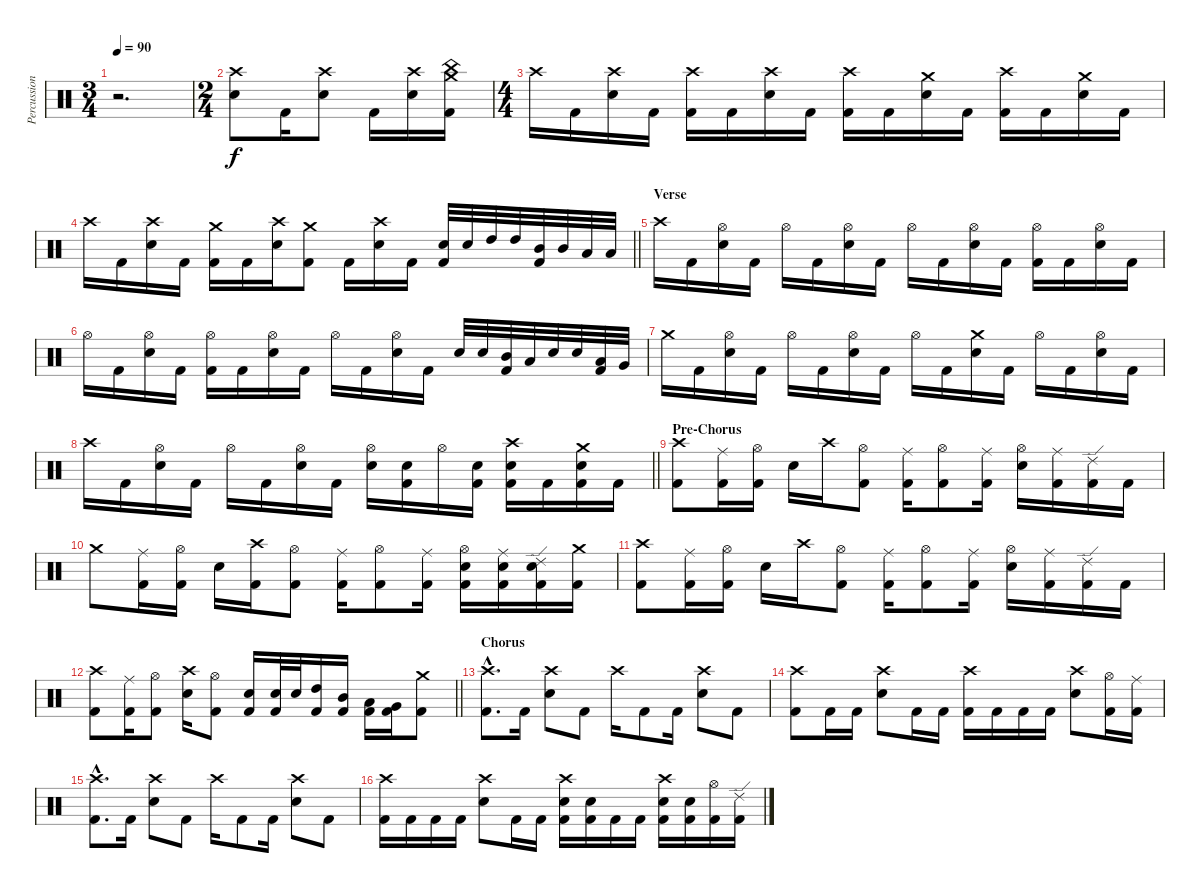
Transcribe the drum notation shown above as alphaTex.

\track ("Percussion" "Percussion") {instrument percussion}
\staff {score}
\articulation defaults
\ts (3 4)
\tempo 90
\clef neutral
\ks c
r.2{d dy f} |
\ts (2 4)
("Crash high (hit)" "Electric Snare (hit)").8 "Kick (hit) 2".16 ("Crash high (hit)" "Electric Snare (hit)").8 "Kick (hit) 2".16 ("Crash high (hit)" "Electric Snare (hit)").16 ("China (hit)" "Crash medium (hit)" "Kick (hit) 2").16 |
\ts (4 4)
"Crash high (hit)".16 "Kick (hit) 2".16 ("Crash high (hit)" "Electric Snare (hit)").16 "Kick (hit) 2".16 ("Crash high (hit)" "Kick (hit) 2").16 "Kick (hit) 2".16 ("Crash high (hit)" "Electric Snare (hit)").16 "Kick (hit) 2".16 ("Crash high (hit)" "Kick (hit) 2").16 "Kick (hit) 2".16 ("Crash medium (hit)" "Electric Snare (hit)").16 "Kick (hit) 2".16 ("Crash high (hit)" "Kick (hit) 2").16 "Kick (hit) 2".16 ("Crash medium (hit)" "Electric Snare (hit)").16 "Kick (hit) 2".16 |
\barLineRight lightlight "Crash high (hit)".16 "Kick (hit) 2".16
("Crash high (hit)" "Electric Snare (hit)").16 "Kick (hit) 2".16 ("Crash medium (hit)" "Kick (hit) 2").16 "Kick (hit) 2".16 ("Crash high (hit)" "Electric Snare (hit)").16 ("Crash medium (hit)" "Kick (hit) 2").8 "Kick (hit) 2".16 ("Crash high (hit)" "Electric Snare (hit)").16 "Kick (hit) 2".16 ("Electric Snare (hit)" "Kick (hit) 2").32 "Electric Snare (hit)".32 "High Tom (hit)".32 "High Tom (hit)".32 ("Mid Tom (hit)" "Kick (hit) 2").32 "Mid Tom (hit)".32 "Low Tom (hit)".32 "Low Tom (hit)".32 |
\section ("" "Verse")
"Crash high (hit)".16 "Kick (hit) 2".16 ("Hi-Hat (open)" "Electric Snare (hit)").16 "Kick (hit) 2".16 "Hi-Hat (open)".16 "Kick (hit) 2".16 ("Hi-Hat (open)" "Electric Snare (hit)").16 "Kick (hit) 2".16 "Hi-Hat (open)".16 "Kick (hit) 2".16 ("Hi-Hat (open)" "Electric Snare (hit)").16 "Kick (hit) 2".16 ("Hi-Hat (open)" "Kick (hit) 2").16 "Kick (hit) 2".16 ("Hi-Hat (open)" "Electric Snare (hit)").16 "Kick (hit) 2".16 |
"Hi-Hat (open)".16 "Kick (hit) 2".16 ("Hi-Hat (open)" "Electric Snare (hit)").16 "Kick (hit) 2".16 ("Hi-Hat (open)" "Kick (hit) 2").16 "Kick (hit) 2".16 ("Hi-Hat (open)" "Electric Snare (hit)").16 "Kick (hit) 2".16 "Hi-Hat (open)".16 "Kick (hit) 2".16 ("Hi-Hat (open)" "Electric Snare (hit)").16 "Kick (hit) 2".16 "Electric Snare (hit)".32 "Electric Snare (hit)".32 ("Mid Tom (hit)" "Kick (hit) 2").32 "Low Tom (hit)".32 "Electric Snare (hit)".32 "Electric Snare (hit)".32 ("Low Tom (hit)" "Kick (hit) 2").32 "Very Low Tom (hit)".32 |
"Crash medium (hit)".16 "Kick (hit) 2".16 ("Hi-Hat (open)" "Electric Snare (hit)").16 "Kick (hit) 2".16 "Hi-Hat (open)".16 "Kick (hit) 2".16 ("Hi-Hat (open)" "Electric Snare (hit)").16 "Kick (hit) 2".16 "Hi-Hat (open)".16 "Kick (hit) 2".16 ("Crash medium (hit)" "Electric Snare (hit)").16 "Kick (hit) 2".16 "Hi-Hat (open)".16 "Kick (hit) 2".16 ("Hi-Hat (open)" "Electric Snare (hit)").16 "Kick (hit) 2".16 |
\barLineRight lightlight "Crash high (hit)".16 "Kick (hit) 2".16
("Hi-Hat (open)" "Electric Snare (hit)").16 "Kick (hit) 2".16 "Hi-Hat (open)".16 "Kick (hit) 2".16 ("Hi-Hat (open)" "Electric Snare (hit)").16 "Kick (hit) 2".16 ("Hi-Hat (open)" "Electric Snare (hit)").16 ("Electric Snare (hit)" "Kick (hit) 2").16 "Hi-Hat (open)".16 ("Electric Snare (hit)" "Kick (hit) 2").16 ("Crash high (hit)" "Electric Snare (hit)" "Kick (hit) 2").16 "Kick (hit) 2".16 ("Crash medium (hit)" "Electric Snare (hit)" "Kick (hit) 2").16 "Kick (hit) 2".16 |
\section ("" "Pre-Chorus")
("Crash high (hit)" "Kick (hit) 2").8 ("Ride (middle)" "Kick (hit) 2").16 ("Hi-Hat (open)" "Kick (hit) 2").16 "Electric Snare (hit)".16 "Crash high (hit)".16 ("Hi-Hat (open)" "Kick (hit) 2").8 ("Ride (middle)" "Kick (hit) 2").16 ("Hi-Hat (open)" "Kick (hit) 2").8 ("Ride (middle)" "Kick (hit) 2").16 ("Hi-Hat (open)" "Electric Snare (hit)").16 ("Ride (middle)" "Kick (hit) 2").16 ("Ride (edge) 2" "Kick (hit) 2").16 "Kick (hit) 2".16 |
"Crash medium (hit)".8 ("Ride (middle)" "Kick (hit) 2").16 ("Hi-Hat (open)" "Kick (hit) 2").16 "Electric Snare (hit)".16 ("Crash high (hit)" "Kick (hit) 2").16 ("Hi-Hat (open)" "Kick (hit) 2").8 ("Ride (middle)" "Kick (hit) 2").16 ("Hi-Hat (open)" "Kick (hit) 2").8 ("Ride (middle)" "Kick (hit) 2").16 ("Hi-Hat (open)" "Electric Snare (hit)" "Kick (hit) 2").16 ("Ride (middle)" "Electric Snare (hit)" "Kick (hit) 2").16 ("Ride (edge) 2" "Electric Snare (hit)" "Kick (hit) 2").16 ("Crash medium (hit)" "Kick (hit) 2").16 |
("Crash high (hit)" "Kick (hit) 2").8 ("Ride (middle)" "Kick (hit) 2").16 ("Hi-Hat (open)" "Kick (hit) 2").16 "Electric Snare (hit)".16 "Crash high (hit)".16 ("Hi-Hat (open)" "Kick (hit) 2").8 ("Ride (middle)" "Kick (hit) 2").16 ("Hi-Hat (open)" "Kick (hit) 2").8 ("Ride (middle)" "Kick (hit) 2").16 ("Hi-Hat (open)" "Electric Snare (hit)").16 ("Ride (middle)" "Kick (hit) 2").16 ("Ride (edge) 2" "Kick (hit) 2").16 "Kick (hit) 2".16 |
\barLineRight lightlight
("Crash high (hit)" "Kick (hit) 2").8 ("Ride (middle)" "Kick (hit) 2").16 ("Hi-Hat (open)" "Kick (hit) 2").8 ("Crash high (hit)" "Electric Snare (hit)").16 ("Hi-Hat (open)" "Kick (hit) 2").8 ("Electric Snare (hit)" "Kick (hit) 2").16 ("Electric Snare (hit)" "Kick (hit) 2").32 "Electric Snare (hit)".32 ("High Tom (hit)" "Kick (hit) 2").16 ("Mid Tom (hit)" "Kick (hit) 2").16 ("Low Tom (hit)" "Kick (hit) 2").16 ("Very Low Tom (hit)" "Kick (hit) 2").16 ("Crash medium (hit)" "Kick (hit) 2").8 |
\section ("" "Chorus")
("Crash high (hit)"{hac} "Kick (hit) 2"{hac}).8{d} "Kick (hit) 2".16 ("Crash high (hit)" "Electric Snare (hit)").8 "Kick (hit) 2".8 "Crash high (hit)".16 "Kick (hit) 2".8 "Kick (hit) 2".16 ("Crash high (hit)" "Electric Snare (hit)").8 "Kick (hit) 2".8 |
("Crash high (hit)" "Kick (hit) 2").8 "Kick (hit) 2".16 "Kick (hit) 2".16 ("Crash high (hit)" "Electric Snare (hit)").8 "Kick (hit) 2".16 "Kick (hit) 2".16 ("Crash high (hit)" "Kick (hit) 2").16 "Kick (hit) 2".16 "Kick (hit) 2".16 "Kick (hit) 2".16 ("Crash high (hit)" "Electric Snare (hit)").8 ("Hi-Hat (open)" "Kick (hit) 2").16 ("Ride (middle)" "Kick (hit) 2").16 |
("Crash high (hit)"{hac} "Kick (hit) 2"{hac}).8{d} "Kick (hit) 2".16 ("Crash high (hit)" "Electric Snare (hit)").8 "Kick (hit) 2".8 "Crash high (hit)".16 "Kick (hit) 2".8 "Kick (hit) 2".16 ("Crash high (hit)" "Electric Snare (hit)").8 "Kick (hit) 2".8 |
("Crash high (hit)" "Kick (hit) 2").16 "Kick (hit) 2".16 "Kick (hit) 2".16 "Kick (hit) 2".16 ("Crash high (hit)" "Electric Snare (hit)").8 "Kick (hit) 2".16 "Kick (hit) 2".16 ("Crash high (hit)" "Electric Snare (hit)" "Kick (hit) 2").16 ("Electric Snare (hit)" "Kick (hit) 2").16 "Kick (hit) 2".16 "Kick (hit) 2".16 ("Crash high (hit)" "Electric Snare (hit)" "Kick (hit) 2").16 ("Electric Snare (hit)" "Kick (hit) 2").16 ("Hi-Hat (open)" "Kick (hit) 2").16 ("Ride (edge) 2" "Kick (hit) 2").16
